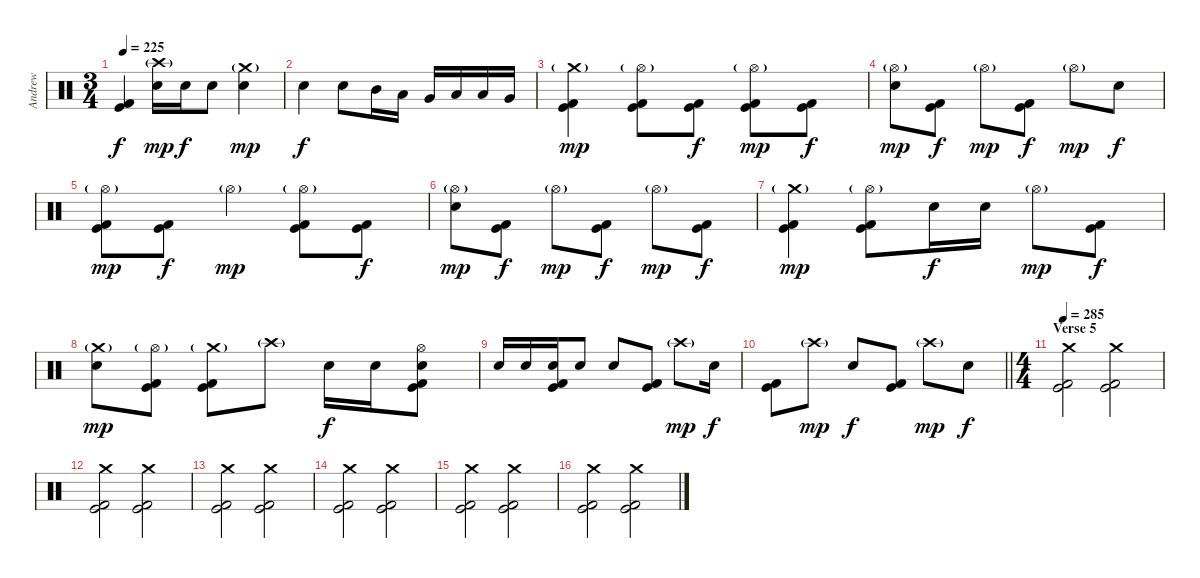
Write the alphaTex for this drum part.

\track ("Andrew" "Andrew") {instrument percussion}
\staff {score}
\articulation defaults
\ts (3 4)
\tempo 225
\clef neutral
\ks c
("Kick (hit)" "Kick (hit) 2").4{dy f} ("Crash high (hit)"{g} "Snare (hit) 2").16{dy mp} "Snare (hit) 2".16{dy f} "Snare (hit) 2".8 ("Crash medium (hit)"{g} "Snare (hit) 2").4{dy mp} |
"Snare (hit) 2".4{dy f} "Snare (hit) 2".8 "Mid Tom (hit)".16 "Low Tom (hit)".16 "Very Low Tom (hit)".16 "Low Floor Tom (hit)".16 "Low Tom (hit)".16 "Very Low Tom (hit)".16 |
("Crash medium (hit)"{g} "Kick (hit)" "Kick (hit) 2").4{dy mp} ("Hi-Hat (open)"{g} "Kick (hit)" "Kick (hit) 2").8 ("Kick (hit)" "Kick (hit) 2").8{dy f} ("Hi-Hat (open)"{g} "Kick (hit)" "Kick (hit) 2").8{dy mp} ("Kick (hit)" "Kick (hit) 2").8{dy f} |
("Hi-Hat (open)"{g} "Snare (hit) 2").8{dy mp} ("Kick (hit)" "Kick (hit) 2").8{dy f} "Hi-Hat (open)"{g}.8{dy mp} ("Kick (hit)" "Kick (hit) 2").8{dy f} "Hi-Hat (open)"{g}.8{dy mp} "Snare (hit) 2".8{dy f} |
("Hi-Hat (open)"{g} "Kick (hit)" "Kick (hit) 2").8{dy mp} ("Kick (hit)" "Kick (hit) 2").8{dy f} "Hi-Hat (open)"{g}.4{dy mp} ("Hi-Hat (open)"{g} "Kick (hit)" "Kick (hit) 2").8 ("Kick (hit)" "Kick (hit) 2").8{dy f} |
("Hi-Hat (open)"{g} "Snare (hit) 2").8{dy mp} ("Kick (hit)" "Kick (hit) 2").8{dy f} "Hi-Hat (open)"{g}.8{dy mp} ("Kick (hit)" "Kick (hit) 2").8{dy f} "Hi-Hat (open)"{g}.8{dy mp} ("Kick (hit)" "Kick (hit) 2").8{dy f} |
("Crash medium (hit)"{g} "Kick (hit)" "Kick (hit) 2").4{dy mp} ("Hi-Hat (open)"{g} "Kick (hit)" "Kick (hit) 2").8 "Snare (hit) 2".16{dy f} "Snare (hit) 2".16 "Hi-Hat (open)"{g}.8{dy mp} ("Kick (hit)" "Kick (hit) 2").8{dy f} |
("Crash medium (hit)"{g} "Snare (hit) 2").8{dy mp} ("Hi-Hat (open)"{g} "Kick (hit)" "Kick (hit) 2").8 ("Crash medium (hit)"{g} "Kick (hit)" "Kick (hit) 2").8 "Crash high (hit)"{g}.8 "Snare (hit) 2".16{dy f} "Snare (hit) 2".16 ("Hi-Hat (open)" "Snare (hit) 2" "Kick (hit) 2" "Kick (hit)").8 |
"Snare (hit) 2".16 "Snare (hit) 2".16 ("Snare (hit) 2" "Kick (hit)" "Kick (hit) 2").16 "Snare (hit) 2".8 "Snare (hit) 2".8 ("Kick (hit)" "Kick (hit) 2").8 "Crash high (hit)"{g}.8{dy mp} "Snare (hit) 2".16{dy f} |
\barLineRight lightlight
("Kick (hit)" "Kick (hit) 2").8 "Crash high (hit)"{g}.8{dy mp} "Snare (hit) 2".8{dy f} ("Kick (hit)" "Kick (hit) 2").8 "Crash high (hit)"{g}.8{dy mp} "Snare (hit) 2".8{dy f} |
\ts (4 4)
\section ("" "Verse 5")
\tempo 285
("Crash medium (hit)" "Kick (hit)" "Kick (hit) 2").2 ("Crash medium (hit)" "Kick (hit)" "Kick (hit) 2").2 |
("Crash medium (hit)" "Kick (hit)" "Kick (hit) 2").2 ("Crash medium (hit)" "Kick (hit)" "Kick (hit) 2").2 |
("Crash medium (hit)" "Kick (hit)" "Kick (hit) 2").2 ("Crash medium (hit)" "Kick (hit)" "Kick (hit) 2").2 |
("Crash medium (hit)" "Kick (hit)" "Kick (hit) 2").2 ("Crash medium (hit)" "Kick (hit)" "Kick (hit) 2").2 |
("Crash medium (hit)" "Kick (hit)" "Kick (hit) 2").2 ("Crash medium (hit)" "Kick (hit)" "Kick (hit) 2").2 |
("Crash medium (hit)" "Kick (hit)" "Kick (hit) 2").2 ("Crash medium (hit)" "Kick (hit)" "Kick (hit) 2").2
